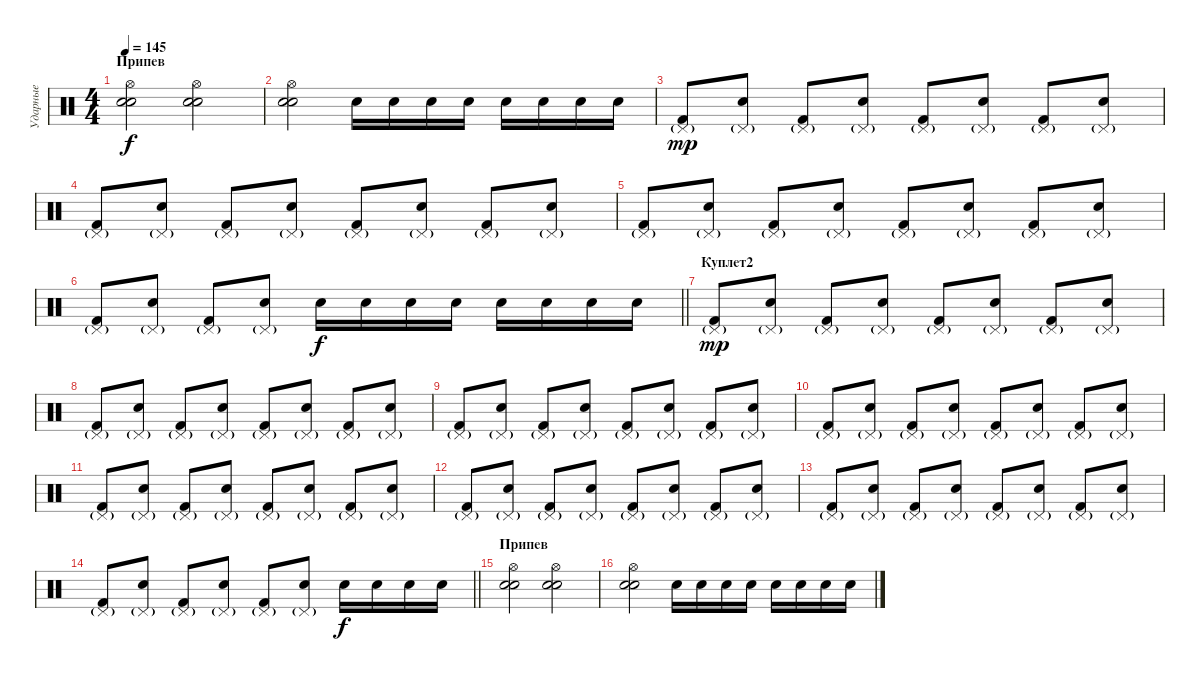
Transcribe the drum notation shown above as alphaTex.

\track ("Ударные" "Ударные") {instrument percussion}
\staff {score}
\articulation defaults
\ts (4 4)
\section ("" "Припев")
\tempo 145
\clef neutral
\ks c
("Hi-Hat (open)" "Electric Snare (hit)" "Snare (hit) 2").2{dy f} ("Hi-Hat (open)" "Electric Snare (hit)" "Snare (hit) 2").2 |
("Hi-Hat (open)" "Electric Snare (hit)" "Snare (hit) 2").2 "Snare (hit) 2".16 "Snare (hit) 2".16 "Snare (hit) 2".16 "Snare (hit) 2".16 "Snare (hit) 2".16 "Snare (hit) 2".16 "Snare (hit) 2".16 "Snare (hit) 2".16 |
("Pedal Hi-Hat (hit)"{g} "Kick (hit) 2").8{dy mp} ("Pedal Hi-Hat (hit)"{g} "Electric Snare (hit)").8 ("Pedal Hi-Hat (hit)"{g} "Kick (hit) 2").8 ("Pedal Hi-Hat (hit)"{g} "Electric Snare (hit)").8 ("Pedal Hi-Hat (hit)"{g} "Kick (hit) 2").8 ("Pedal Hi-Hat (hit)"{g} "Electric Snare (hit)").8 ("Pedal Hi-Hat (hit)"{g} "Kick (hit) 2").8 ("Pedal Hi-Hat (hit)"{g} "Electric Snare (hit)").8 |
("Pedal Hi-Hat (hit)"{g} "Kick (hit) 2").8 ("Pedal Hi-Hat (hit)"{g} "Electric Snare (hit)").8 ("Pedal Hi-Hat (hit)"{g} "Kick (hit) 2").8 ("Pedal Hi-Hat (hit)"{g} "Electric Snare (hit)").8 ("Pedal Hi-Hat (hit)"{g} "Kick (hit) 2").8 ("Pedal Hi-Hat (hit)"{g} "Electric Snare (hit)").8 ("Pedal Hi-Hat (hit)"{g} "Kick (hit) 2").8 ("Pedal Hi-Hat (hit)"{g} "Electric Snare (hit)").8 |
("Pedal Hi-Hat (hit)"{g} "Kick (hit) 2").8 ("Pedal Hi-Hat (hit)"{g} "Electric Snare (hit)").8 ("Pedal Hi-Hat (hit)"{g} "Kick (hit) 2").8 ("Pedal Hi-Hat (hit)"{g} "Electric Snare (hit)").8 ("Pedal Hi-Hat (hit)"{g} "Kick (hit) 2").8 ("Pedal Hi-Hat (hit)"{g} "Electric Snare (hit)").8 ("Pedal Hi-Hat (hit)"{g} "Kick (hit) 2").8 ("Pedal Hi-Hat (hit)"{g} "Electric Snare (hit)").8 |
\barLineRight lightlight
("Pedal Hi-Hat (hit)"{g} "Kick (hit) 2").8 ("Pedal Hi-Hat (hit)"{g} "Electric Snare (hit)").8 ("Pedal Hi-Hat (hit)"{g} "Kick (hit) 2").8 ("Pedal Hi-Hat (hit)"{g} "Electric Snare (hit)").8 "Snare (hit) 2".16{dy f} "Snare (hit) 2".16 "Snare (hit) 2".16 "Snare (hit) 2".16 "Snare (hit) 2".16 "Snare (hit) 2".16 "Snare (hit) 2".16 "Snare (hit) 2".16 |
\section ("" "Куплет2")
("Pedal Hi-Hat (hit)"{g} "Kick (hit) 2").8{dy mp} ("Pedal Hi-Hat (hit)"{g} "Electric Snare (hit)").8 ("Pedal Hi-Hat (hit)"{g} "Kick (hit) 2").8 ("Pedal Hi-Hat (hit)"{g} "Electric Snare (hit)").8 ("Pedal Hi-Hat (hit)"{g} "Kick (hit) 2").8 ("Pedal Hi-Hat (hit)"{g} "Electric Snare (hit)").8 ("Pedal Hi-Hat (hit)"{g} "Kick (hit) 2").8 ("Pedal Hi-Hat (hit)"{g} "Electric Snare (hit)").8 |
("Pedal Hi-Hat (hit)"{g} "Kick (hit) 2").8 ("Pedal Hi-Hat (hit)"{g} "Electric Snare (hit)").8 ("Pedal Hi-Hat (hit)"{g} "Kick (hit) 2").8 ("Pedal Hi-Hat (hit)"{g} "Electric Snare (hit)").8 ("Pedal Hi-Hat (hit)"{g} "Kick (hit) 2").8 ("Pedal Hi-Hat (hit)"{g} "Electric Snare (hit)").8 ("Pedal Hi-Hat (hit)"{g} "Kick (hit) 2").8 ("Pedal Hi-Hat (hit)"{g} "Electric Snare (hit)").8 |
("Pedal Hi-Hat (hit)"{g} "Kick (hit) 2").8 ("Pedal Hi-Hat (hit)"{g} "Electric Snare (hit)").8 ("Pedal Hi-Hat (hit)"{g} "Kick (hit) 2").8 ("Pedal Hi-Hat (hit)"{g} "Electric Snare (hit)").8 ("Pedal Hi-Hat (hit)"{g} "Kick (hit) 2").8 ("Pedal Hi-Hat (hit)"{g} "Electric Snare (hit)").8 ("Pedal Hi-Hat (hit)"{g} "Kick (hit) 2").8 ("Pedal Hi-Hat (hit)"{g} "Electric Snare (hit)").8 |
("Pedal Hi-Hat (hit)"{g} "Kick (hit) 2").8 ("Pedal Hi-Hat (hit)"{g} "Electric Snare (hit)").8 ("Pedal Hi-Hat (hit)"{g} "Kick (hit) 2").8 ("Pedal Hi-Hat (hit)"{g} "Electric Snare (hit)").8 ("Pedal Hi-Hat (hit)"{g} "Kick (hit) 2").8 ("Pedal Hi-Hat (hit)"{g} "Electric Snare (hit)").8 ("Pedal Hi-Hat (hit)"{g} "Kick (hit) 2").8 ("Pedal Hi-Hat (hit)"{g} "Electric Snare (hit)").8 |
("Pedal Hi-Hat (hit)"{g} "Kick (hit) 2").8 ("Pedal Hi-Hat (hit)"{g} "Electric Snare (hit)").8 ("Pedal Hi-Hat (hit)"{g} "Kick (hit) 2").8 ("Pedal Hi-Hat (hit)"{g} "Electric Snare (hit)").8 ("Pedal Hi-Hat (hit)"{g} "Kick (hit) 2").8 ("Pedal Hi-Hat (hit)"{g} "Electric Snare (hit)").8 ("Pedal Hi-Hat (hit)"{g} "Kick (hit) 2").8 ("Pedal Hi-Hat (hit)"{g} "Electric Snare (hit)").8 |
("Pedal Hi-Hat (hit)"{g} "Kick (hit) 2").8 ("Pedal Hi-Hat (hit)"{g} "Electric Snare (hit)").8 ("Pedal Hi-Hat (hit)"{g} "Kick (hit) 2").8 ("Pedal Hi-Hat (hit)"{g} "Electric Snare (hit)").8 ("Pedal Hi-Hat (hit)"{g} "Kick (hit) 2").8 ("Pedal Hi-Hat (hit)"{g} "Electric Snare (hit)").8 ("Pedal Hi-Hat (hit)"{g} "Kick (hit) 2").8 ("Pedal Hi-Hat (hit)"{g} "Electric Snare (hit)").8 |
("Pedal Hi-Hat (hit)"{g} "Kick (hit) 2").8 ("Pedal Hi-Hat (hit)"{g} "Electric Snare (hit)").8 ("Pedal Hi-Hat (hit)"{g} "Kick (hit) 2").8 ("Pedal Hi-Hat (hit)"{g} "Electric Snare (hit)").8 ("Pedal Hi-Hat (hit)"{g} "Kick (hit) 2").8 ("Pedal Hi-Hat (hit)"{g} "Electric Snare (hit)").8 ("Pedal Hi-Hat (hit)"{g} "Kick (hit) 2").8 ("Pedal Hi-Hat (hit)"{g} "Electric Snare (hit)").8 |
\barLineRight lightlight
("Pedal Hi-Hat (hit)"{g} "Kick (hit) 2").8 ("Pedal Hi-Hat (hit)"{g} "Electric Snare (hit)").8 ("Pedal Hi-Hat (hit)"{g} "Kick (hit) 2").8 ("Pedal Hi-Hat (hit)"{g} "Electric Snare (hit)").8 ("Pedal Hi-Hat (hit)"{g} "Kick (hit) 2").8 ("Pedal Hi-Hat (hit)"{g} "Electric Snare (hit)").8 "Snare (hit) 2".16{dy f} "Snare (hit) 2".16 "Snare (hit) 2".16 "Snare (hit) 2".16 |
\section ("" "Припев")
("Hi-Hat (open)" "Electric Snare (hit)" "Snare (hit) 2").2 ("Hi-Hat (open)" "Electric Snare (hit)" "Snare (hit) 2").2 |
("Hi-Hat (open)" "Electric Snare (hit)" "Snare (hit) 2").2 "Snare (hit) 2".16 "Snare (hit) 2".16 "Snare (hit) 2".16 "Snare (hit) 2".16 "Snare (hit) 2".16 "Snare (hit) 2".16 "Snare (hit) 2".16 "Snare (hit) 2".16
